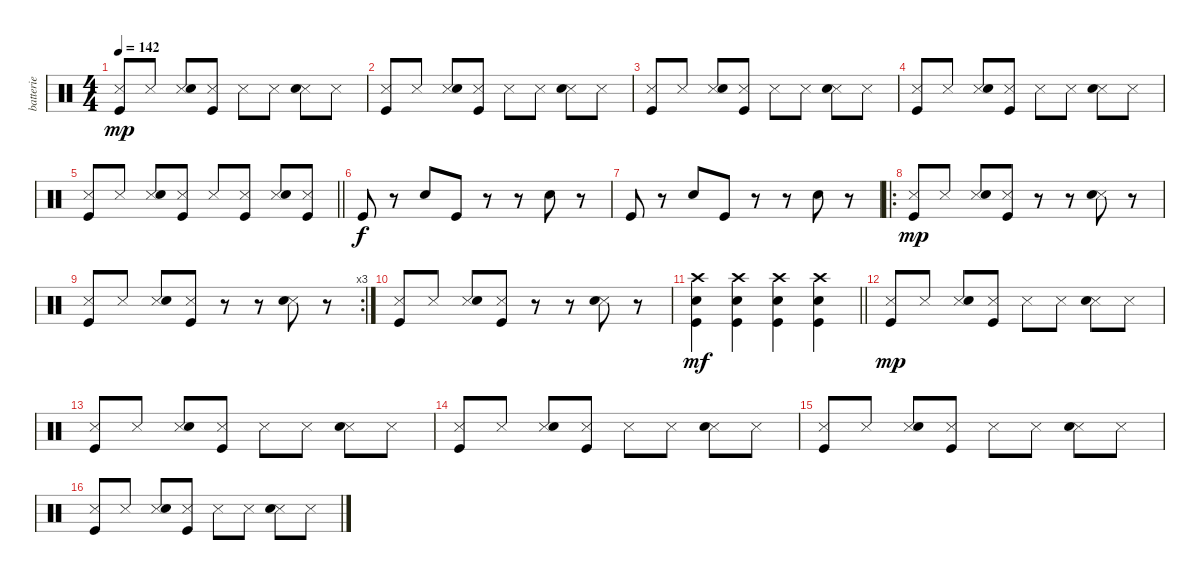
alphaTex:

\track ("batterie" "batterie") {instrument percussion}
\staff {score}
\articulation defaults
\ts (4 4)
\tempo 142
\clef neutral
\ks c
("Snare (side stick) 3" "Kick (hit)").8{dy mp} "Snare (side stick) 3".8 ("Snare (side stick) 3" "Electric Snare (hit)").8 ("Snare (side stick) 3" "Kick (hit)").8 "Snare (side stick) 3".8 "Snare (side stick) 3".8 ("Snare (side stick) 3" "Electric Snare (hit)").8 "Snare (side stick) 3".8 |
("Snare (side stick) 3" "Kick (hit)").8 "Snare (side stick) 3".8 ("Snare (side stick) 3" "Electric Snare (hit)").8 ("Snare (side stick) 3" "Kick (hit)").8 "Snare (side stick) 3".8 "Snare (side stick) 3".8 ("Snare (side stick) 3" "Electric Snare (hit)").8 "Snare (side stick) 3".8 |
("Snare (side stick) 3" "Kick (hit)").8 "Snare (side stick) 3".8 ("Snare (side stick) 3" "Electric Snare (hit)").8 ("Snare (side stick) 3" "Kick (hit)").8 "Snare (side stick) 3".8 "Snare (side stick) 3".8 ("Snare (side stick) 3" "Electric Snare (hit)").8 "Snare (side stick) 3".8 |
("Snare (side stick) 3" "Kick (hit)").8 "Snare (side stick) 3".8 ("Snare (side stick) 3" "Electric Snare (hit)").8 ("Snare (side stick) 3" "Kick (hit)").8 "Snare (side stick) 3".8 "Snare (side stick) 3".8 ("Snare (side stick) 3" "Electric Snare (hit)").8 "Snare (side stick) 3".8 |
\barLineRight lightlight
("Snare (side stick) 3" "Kick (hit)").8 "Snare (side stick) 3".8 ("Snare (side stick) 3" "Electric Snare (hit)").8 ("Snare (side stick) 3" "Kick (hit)").8 "Snare (side stick) 3".8 ("Snare (side stick) 3" "Kick (hit)").8 ("Snare (side stick) 3" "Electric Snare (hit)").8 ("Snare (side stick) 3" "Kick (hit)").8 |
"Kick (hit)".8{dy f} r.8 "Electric Snare (hit)".8 "Kick (hit)".8 r.8 r.8 "Electric Snare (hit)".8 r.8 |
"Kick (hit)".8 r.8 "Electric Snare (hit)".8 "Kick (hit)".8 r.8 r.8 "Electric Snare (hit)".8 r.8 |
\ro
("Snare (side stick) 3" "Kick (hit)").8{dy mp} "Snare (side stick) 3".8 ("Snare (side stick) 3" "Electric Snare (hit)").8 ("Snare (side stick) 3" "Kick (hit)").8 r.8 r.8 ("Snare (side stick) 3" "Electric Snare (hit)").8 r.8 |
\rc 3
("Snare (side stick) 3" "Kick (hit)").8 "Snare (side stick) 3".8 ("Snare (side stick) 3" "Electric Snare (hit)").8 ("Snare (side stick) 3" "Kick (hit)").8 r.8 r.8 ("Snare (side stick) 3" "Electric Snare (hit)").8 r.8 |
("Snare (side stick) 3" "Kick (hit)").8 "Snare (side stick) 3".8 ("Snare (side stick) 3" "Electric Snare (hit)").8 ("Snare (side stick) 3" "Kick (hit)").8 r.8 r.8 ("Snare (side stick) 3" "Electric Snare (hit)").8 r.8 |
\barLineRight lightlight
("Crash high (hit)" "Electric Snare (hit)" "Kick (hit)").4{dy mf} ("Crash high (hit)" "Electric Snare (hit)" "Kick (hit)").4 ("Crash high (hit)" "Electric Snare (hit)" "Kick (hit)").4 ("Crash high (hit)" "Electric Snare (hit)" "Kick (hit)").4 |
("Snare (side stick) 3" "Kick (hit)").8{dy mp} "Snare (side stick) 3".8 ("Snare (side stick) 3" "Electric Snare (hit)").8 ("Snare (side stick) 3" "Kick (hit)").8 "Snare (side stick) 3".8 "Snare (side stick) 3".8 ("Snare (side stick) 3" "Electric Snare (hit)").8 "Snare (side stick) 3".8 |
("Snare (side stick) 3" "Kick (hit)").8 "Snare (side stick) 3".8 ("Snare (side stick) 3" "Electric Snare (hit)").8 ("Snare (side stick) 3" "Kick (hit)").8 "Snare (side stick) 3".8 "Snare (side stick) 3".8 ("Snare (side stick) 3" "Electric Snare (hit)").8 "Snare (side stick) 3".8 |
("Snare (side stick) 3" "Kick (hit)").8 "Snare (side stick) 3".8 ("Snare (side stick) 3" "Electric Snare (hit)").8 ("Snare (side stick) 3" "Kick (hit)").8 "Snare (side stick) 3".8 "Snare (side stick) 3".8 ("Snare (side stick) 3" "Electric Snare (hit)").8 "Snare (side stick) 3".8 |
("Snare (side stick) 3" "Kick (hit)").8 "Snare (side stick) 3".8 ("Snare (side stick) 3" "Electric Snare (hit)").8 ("Snare (side stick) 3" "Kick (hit)").8 "Snare (side stick) 3".8 "Snare (side stick) 3".8 ("Snare (side stick) 3" "Electric Snare (hit)").8 "Snare (side stick) 3".8 |
("Snare (side stick) 3" "Kick (hit)").8 "Snare (side stick) 3".8 ("Snare (side stick) 3" "Electric Snare (hit)").8 ("Snare (side stick) 3" "Kick (hit)").8 "Snare (side stick) 3".8 "Snare (side stick) 3".8 ("Snare (side stick) 3" "Electric Snare (hit)").8 "Snare (side stick) 3".8
